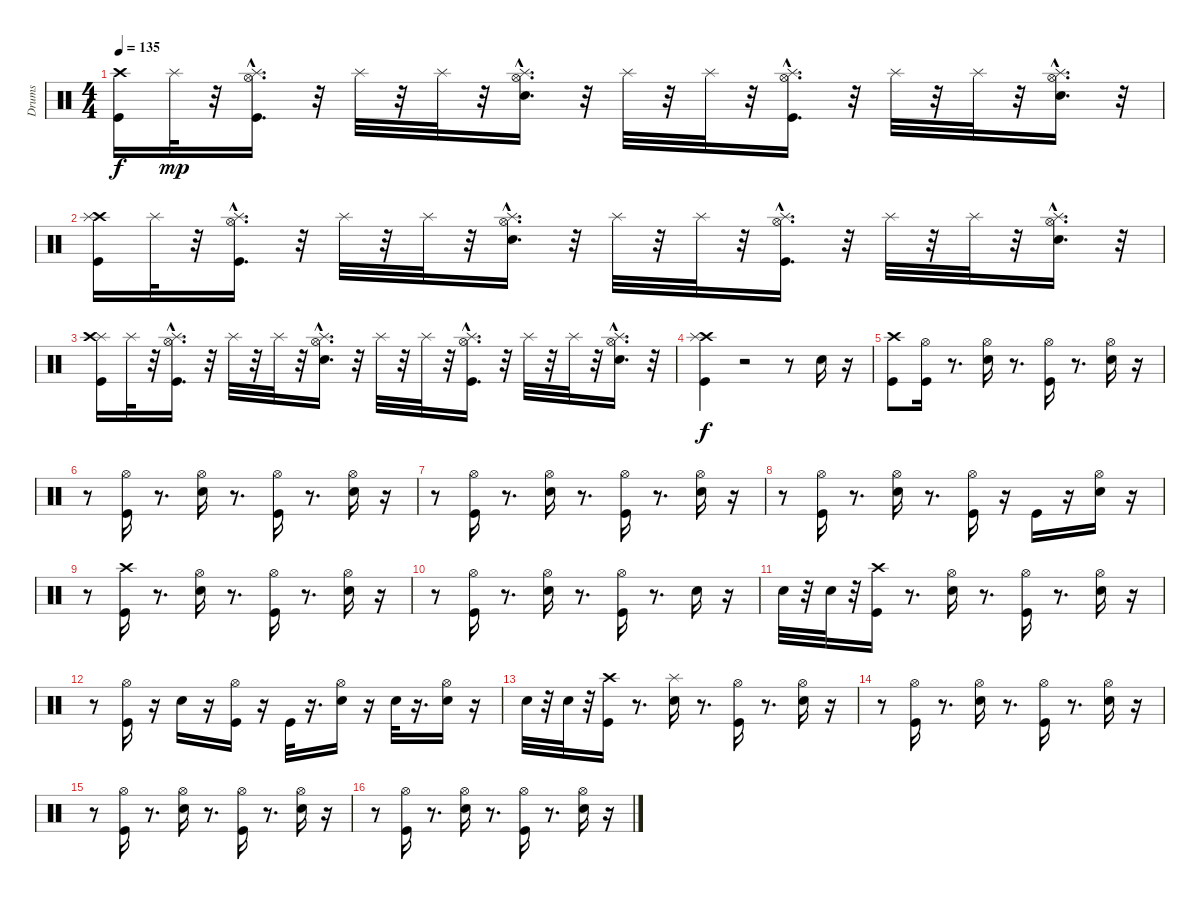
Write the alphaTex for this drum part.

\track ("Drums" "Drums") {instrument percussion}
\staff {score}
\articulation defaults
\ts (4 4)
\tempo 135
\clef neutral
\ks c
("Kick (hit)" "Crash high (hit)").16{dy f} "Splash (hit)".32{dy mp} r.32 ("Splash (hit)"{hac} "Hi-Hat (open)" "Kick (hit)").16{d} r.32 "Splash (hit)".32 r.32 "Splash (hit)".32 r.32 ("Snare (hit) 2" "Hi-Hat (open)" "Splash (hit)"{hac}).16{d} r.32 "Splash (hit)".32 r.32 "Splash (hit)".32 r.32 ("Hi-Hat (open)" "Kick (hit)" "Splash (hit)"{hac}).16{d} r.32 "Splash (hit)".32 r.32 "Splash (hit)".32 r.32 ("Hi-Hat (open)" "Snare (hit) 2" "Splash (hit)"{hac}).16{d} r.32 |
("Crash high (hit)" "Kick (hit)" "Splash (hit)").16 "Splash (hit)".32 r.32 ("Hi-Hat (open)" "Splash (hit)"{hac} "Kick (hit)").16{d} r.32 "Splash (hit)".32 r.32 "Splash (hit)".32 r.32 ("Hi-Hat (open)" "Snare (hit) 2" "Splash (hit)"{hac}).16{d} r.32 "Splash (hit)".32 r.32 "Splash (hit)".32 r.32 ("Hi-Hat (open)" "Kick (hit)" "Splash (hit)"{hac}).16{d} r.32 "Splash (hit)".32 r.32 "Splash (hit)".32 r.32 ("Hi-Hat (open)" "Snare (hit) 2" "Splash (hit)"{hac}).16{d} r.32 |
("Splash (hit)" "Crash high (hit)" "Kick (hit)").16 "Splash (hit)".32 r.32 ("Hi-Hat (open)" "Splash (hit)"{hac} "Kick (hit)").16{d} r.32 "Splash (hit)".32 r.32 "Splash (hit)".32 r.32 ("Hi-Hat (open)" "Snare (hit) 2" "Splash (hit)"{hac}).16{d} r.32 "Splash (hit)".32 r.32 "Splash (hit)".32 r.32 ("Hi-Hat (open)" "Kick (hit)" "Splash (hit)"{hac}).16{d} r.32 "Splash (hit)".32 r.32 "Splash (hit)".32 r.32 ("Hi-Hat (open)" "Snare (hit) 2" "Splash (hit)"{hac}).16{d} r.32 |
("Crash high (hit)" "Kick (hit)" "Splash (hit)").4{dy f} r.2 r.8 "Snare (hit) 2".16 r.16 |
("Kick (hit)" "Crash high (hit)").8 ("Hi-Hat (open)" "Kick (hit)").16 r.8{d} ("Hi-Hat (open)" "Snare (hit) 2").16 r.8{d} ("Hi-Hat (open)" "Kick (hit)").16 r.8{d} ("Hi-Hat (open)" "Snare (hit) 2").16 r.16 |
r.8 ("Hi-Hat (open)" "Kick (hit)").16 r.8{d} ("Hi-Hat (open)" "Snare (hit) 2").16 r.8{d} ("Hi-Hat (open)" "Kick (hit)").16 r.8{d} ("Hi-Hat (open)" "Snare (hit) 2").16 r.16 |
r.8 ("Hi-Hat (open)" "Kick (hit)").16 r.8{d} ("Hi-Hat (open)" "Snare (hit) 2").16 r.8{d} ("Hi-Hat (open)" "Kick (hit)").16 r.8{d} ("Hi-Hat (open)" "Snare (hit) 2").16 r.16 |
r.8 ("Hi-Hat (open)" "Kick (hit)").16 r.8{d} ("Hi-Hat (open)" "Snare (hit) 2").16 r.8{d} ("Hi-Hat (open)" "Kick (hit)").16 r.16 "Kick (hit)".16 r.16 ("Hi-Hat (open)" "Snare (hit) 2").16 r.16 |
r.8 ("Crash high (hit)" "Kick (hit)").16 r.8{d} ("Hi-Hat (open)" "Snare (hit) 2").16 r.8{d} ("Hi-Hat (open)" "Kick (hit)").16 r.8{d} ("Hi-Hat (open)" "Snare (hit) 2").16 r.16 |
r.8 ("Hi-Hat (open)" "Kick (hit)").16 r.8{d} ("Hi-Hat (open)" "Snare (hit) 2").16 r.8{d} ("Hi-Hat (open)" "Kick (hit)").16 r.8{d} "Snare (hit) 2".16 r.16 |
"Snare (hit) 2".32 r.32 "Snare (hit) 2".32 r.32 ("Crash high (hit)" "Kick (hit)").16 r.8{d} ("Snare (hit) 2" "Hi-Hat (open)").16 r.8{d} ("Hi-Hat (open)" "Kick (hit)").16 r.8{d} ("Hi-Hat (open)" "Snare (hit) 2").16 r.16 |
r.8 ("Hi-Hat (open)" "Kick (hit)").16 r.16 "Snare (hit) 2".16 r.16 ("Hi-Hat (open)" "Kick (hit)").16 r.16 "Kick (hit)".32 r.16{d} ("Hi-Hat (open)" "Snare (hit) 2").16 r.16 "Snare (hit) 2".32 r.16{d} ("Hi-Hat (open)" "Snare (hit) 2").16 r.16 |
"Snare (hit) 2".32 r.32 "Snare (hit) 2".32 r.32 ("Crash high (hit)" "Kick (hit)").16 r.8{d} ("Snare (hit) 2" "Splash (hit)").16 r.8{d} ("Hi-Hat (open)" "Kick (hit)").16 r.8{d} ("Hi-Hat (open)" "Snare (hit) 2").16 r.16 |
r.8 ("Hi-Hat (open)" "Kick (hit)").16 r.8{d} ("Hi-Hat (open)" "Snare (hit) 2").16 r.8{d} ("Hi-Hat (open)" "Kick (hit)").16 r.8{d} ("Hi-Hat (open)" "Snare (hit) 2").16 r.16 |
r.8 ("Hi-Hat (open)" "Kick (hit)").16 r.8{d} ("Hi-Hat (open)" "Snare (hit) 2").16 r.8{d} ("Hi-Hat (open)" "Kick (hit)").16 r.8{d} ("Hi-Hat (open)" "Snare (hit) 2").16 r.16 |
r.8 ("Hi-Hat (open)" "Kick (hit)").16 r.8{d} ("Hi-Hat (open)" "Snare (hit) 2").16 r.8{d} ("Hi-Hat (open)" "Kick (hit)").16 r.8{d} ("Hi-Hat (open)" "Snare (hit) 2").16 r.16
